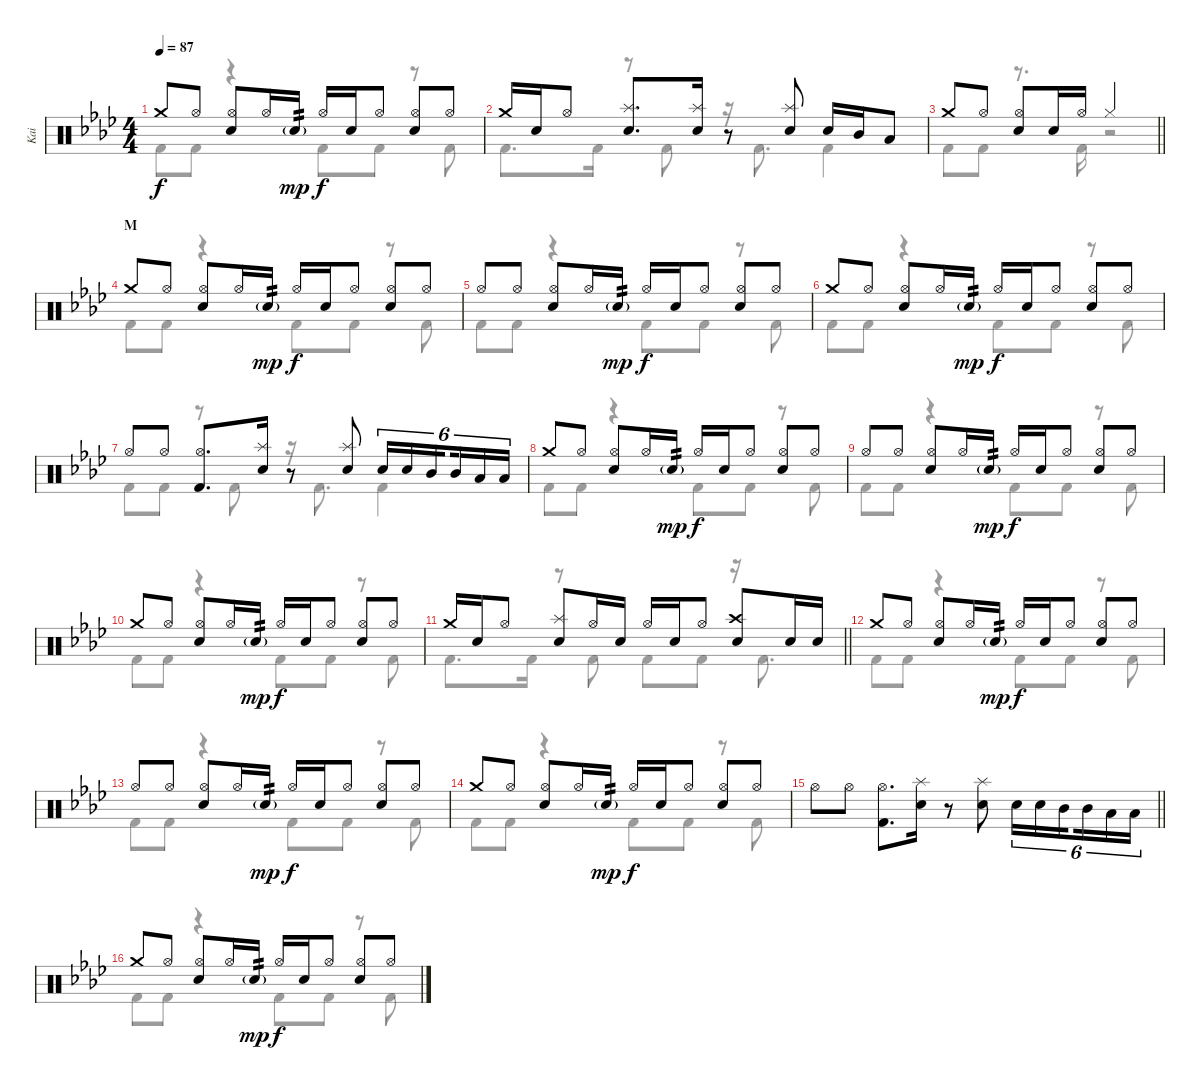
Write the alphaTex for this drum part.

\track ("Kai" "Kai") {instrument percussion}
\staff {score}
\articulation defaults
\voice
\ts (4 4)
\tempo 87
\clef neutral
\ks ab "Crash medium (hit)".8{dy f} "Hi-Hat (open)".8
("Hi-Hat (open)" "Snare (hit) 2").8 "Hi-Hat (open)".16 "Snare (hit) 2"{g}.16{tp 2 dy mp} "Hi-Hat (open)".16{dy f} "Snare (hit) 2".16 "Hi-Hat (open)".8 ("Hi-Hat (open)" "Snare (hit) 2").8 "Hi-Hat (open)".8 |
"Crash medium (hit)".16 "Snare (hit) 2".16 "Hi-Hat (open)".8 ("Splash (hit)" "Snare (hit) 2").8{d} ("Splash (hit)" "Snare (hit) 2").16 r.8 ("Splash (hit)" "Snare (hit) 2").8 "Snare (hit) 2".16 "Mid Tom (hit)".16 "Low Tom (hit)".8 |
\barLineRight lightlight "Crash medium (hit)".8 "Hi-Hat (open)".8
("Hi-Hat (open)" "Snare (hit) 2").8 "Snare (hit) 2".16 "Hi-Hat (open)".16 "Hi-Hat (closed)".2 |
\section ("" "M")
"Crash medium (hit)".8 "Hi-Hat (open)".8 ("Hi-Hat (open)" "Snare (hit) 2").8 "Hi-Hat (open)".16 "Snare (hit) 2"{g}.16{tp 2 dy mp} "Hi-Hat (open)".16{dy f} "Snare (hit) 2".16 "Hi-Hat (open)".8 ("Hi-Hat (open)" "Snare (hit) 2").8 "Hi-Hat (open)".8 |
"Hi-Hat (open)".8 "Hi-Hat (open)".8 ("Hi-Hat (open)" "Snare (hit) 2").8 "Hi-Hat (open)".16 "Snare (hit) 2"{g}.16{tp 2 dy mp} "Hi-Hat (open)".16{dy f} "Snare (hit) 2".16 "Hi-Hat (open)".8 ("Hi-Hat (open)" "Snare (hit) 2").8 "Hi-Hat (open)".8 |
"Crash medium (hit)".8 "Hi-Hat (open)".8 ("Hi-Hat (open)" "Snare (hit) 2").8 "Hi-Hat (open)".16 "Snare (hit) 2"{g}.16{tp 2 dy mp} "Hi-Hat (open)".16{dy f} "Snare (hit) 2".16 "Hi-Hat (open)".8 ("Hi-Hat (open)" "Snare (hit) 2").8 "Hi-Hat (open)".8 |
"Hi-Hat (open)".8 "Hi-Hat (open)".8 ("Hi-Hat (open)" "Kick (hit) 2").8{d} ("Splash (hit)" "Snare (hit) 2").16 r.8 ("Splash (hit)" "Snare (hit) 2").8 "Snare (hit) 2".16{tu (6 4)} "Snare (hit) 2".16{tu (6 4)} "Mid Tom (hit)".16{tu (6 4) beam splitsecondary} "Mid Tom (hit)".16{tu (6 4)} "Low Tom (hit)".16{tu (6 4)} "Low Tom (hit)".16{tu (6 4)} |
"Crash medium (hit)".8 "Hi-Hat (open)".8 ("Hi-Hat (open)" "Snare (hit) 2").8 "Hi-Hat (open)".16 "Snare (hit) 2"{g}.16{tp 2 dy mp} "Hi-Hat (open)".16{dy f} "Snare (hit) 2".16 "Hi-Hat (open)".8 ("Hi-Hat (open)" "Snare (hit) 2").8 "Hi-Hat (open)".8 |
"Hi-Hat (open)".8 "Hi-Hat (open)".8 ("Hi-Hat (open)" "Snare (hit) 2").8 "Hi-Hat (open)".16 "Snare (hit) 2"{g}.16{tp 2 dy mp} "Hi-Hat (open)".16{dy f} "Snare (hit) 2".16 "Hi-Hat (open)".8 ("Hi-Hat (open)" "Snare (hit) 2").8 "Hi-Hat (open)".8 |
"Crash medium (hit)".8 "Hi-Hat (open)".8 ("Hi-Hat (open)" "Snare (hit) 2").8 "Hi-Hat (open)".16 "Snare (hit) 2"{g}.16{tp 2 dy mp} "Hi-Hat (open)".16{dy f} "Snare (hit) 2".16 "Hi-Hat (open)".8 ("Hi-Hat (open)" "Snare (hit) 2").8 "Hi-Hat (open)".8 |
\barLineRight lightlight "Crash medium (hit)".16 "Snare (hit) 2".16 "Hi-Hat (open)".8
("Splash (hit)" "Snare (hit) 2").8 "Hi-Hat (open)".16 "Snare (hit) 2".16 "Hi-Hat (open)".16 "Snare (hit) 2".16 "Hi-Hat (open)".8 ("Crash high (hit)" "Snare (hit) 2").8 "Snare (hit) 2".16 "Snare (hit) 2".16 |
"Crash medium (hit)".8 "Hi-Hat (open)".8 ("Hi-Hat (open)" "Snare (hit) 2").8 "Hi-Hat (open)".16 "Snare (hit) 2"{g}.16{tp 2 dy mp} "Hi-Hat (open)".16{dy f} "Snare (hit) 2".16 "Hi-Hat (open)".8 ("Hi-Hat (open)" "Snare (hit) 2").8 "Hi-Hat (open)".8 |
"Hi-Hat (open)".8 "Hi-Hat (open)".8 ("Hi-Hat (open)" "Snare (hit) 2").8 "Hi-Hat (open)".16 "Snare (hit) 2"{g}.16{tp 2 dy mp} "Hi-Hat (open)".16{dy f} "Snare (hit) 2".16 "Hi-Hat (open)".8 ("Hi-Hat (open)" "Snare (hit) 2").8 "Hi-Hat (open)".8 |
"Crash medium (hit)".8 "Hi-Hat (open)".8 ("Hi-Hat (open)" "Snare (hit) 2").8 "Hi-Hat (open)".16 "Snare (hit) 2"{g}.16{tp 2 dy mp} "Hi-Hat (open)".16{dy f} "Snare (hit) 2".16 "Hi-Hat (open)".8 ("Hi-Hat (open)" "Snare (hit) 2").8 "Hi-Hat (open)".8 |
\barLineRight lightlight "Hi-Hat (open)".8 "Hi-Hat (open)".8
("Hi-Hat (open)" "Kick (hit) 2").8{d} ("Splash (hit)" "Snare (hit) 2").16 r.8 ("Splash (hit)" "Snare (hit) 2").8 "Snare (hit) 2".16{tu (6 4)} "Snare (hit) 2".16{tu (6 4)} "Mid Tom (hit)".16{tu (6 4) beam splitsecondary} "Mid Tom (hit)".16{tu (6 4)} "Low Tom (hit)".16{tu (6 4)} "Low Tom (hit)".16{tu (6 4)} |
"Crash medium (hit)".8 "Hi-Hat (open)".8 ("Hi-Hat (open)" "Snare (hit) 2").8 "Hi-Hat (open)".16 "Snare (hit) 2"{g}.16{tp 2 dy mp} "Hi-Hat (open)".16{dy f} "Snare (hit) 2".16 "Hi-Hat (open)".8 ("Hi-Hat (open)" "Snare (hit) 2").8 "Hi-Hat (open)".8
\voice
\clef neutral
\ottava regular
\simile none
\ks ab "Kick (hit) 2".8{dy f} "Kick (hit) 2".8
r.4 "Kick (hit) 2".8 "Kick (hit) 2".8 r.8 "Kick (hit) 2".8 |
"Kick (hit) 2".8{d} "Kick (hit) 2".16 r.8 "Kick (hit) 2".8 r.16 "Kick (hit) 2".8{d} "Kick (hit) 2".4 |
\barLineRight lightlight "Kick (hit) 2".8 "Kick (hit) 2".8
r.8{d} "Kick (hit) 2".16 r.2 |
"Kick (hit) 2".8 "Kick (hit) 2".8 r.4 "Kick (hit) 2".8 "Kick (hit) 2".8 r.8 "Kick (hit) 2".8 |
"Kick (hit) 2".8 "Kick (hit) 2".8 r.4 "Kick (hit) 2".8 "Kick (hit) 2".8 r.8 "Kick (hit) 2".8 |
"Kick (hit) 2".8 "Kick (hit) 2".8 r.4 "Kick (hit) 2".8 "Kick (hit) 2".8 r.8 "Kick (hit) 2".8 |
"Kick (hit) 2".8 "Kick (hit) 2".8 r.8 "Kick (hit) 2".8 r.16 "Kick (hit) 2".8{d} "Kick (hit) 2".4 |
"Kick (hit) 2".8 "Kick (hit) 2".8 r.4 "Kick (hit) 2".8 "Kick (hit) 2".8 r.8 "Kick (hit) 2".8 |
"Kick (hit) 2".8 "Kick (hit) 2".8 r.4 "Kick (hit) 2".8 "Kick (hit) 2".8 r.8 "Kick (hit) 2".8 |
"Kick (hit) 2".8 "Kick (hit) 2".8 r.4 "Kick (hit) 2".8 "Kick (hit) 2".8 r.8 "Kick (hit) 2".8 |
\barLineRight lightlight "Kick (hit) 2".8{d} "Kick (hit) 2".16
r.8 "Kick (hit) 2".8 "Kick (hit) 2".8 "Kick (hit) 2".8 r.16 "Kick (hit) 2".8{d} |
"Kick (hit) 2".8 "Kick (hit) 2".8 r.4 "Kick (hit) 2".8 "Kick (hit) 2".8 r.8 "Kick (hit) 2".8 |
"Kick (hit) 2".8 "Kick (hit) 2".8 r.4 "Kick (hit) 2".8 "Kick (hit) 2".8 r.8 "Kick (hit) 2".8 |
"Kick (hit) 2".8 "Kick (hit) 2".8 r.4 "Kick (hit) 2".8 "Kick (hit) 2".8 r.8 "Kick (hit) 2".8 |
\barLineRight lightlight
|
"Kick (hit) 2".8 "Kick (hit) 2".8 r.4 "Kick (hit) 2".8 "Kick (hit) 2".8 r.8 "Kick (hit) 2".8
